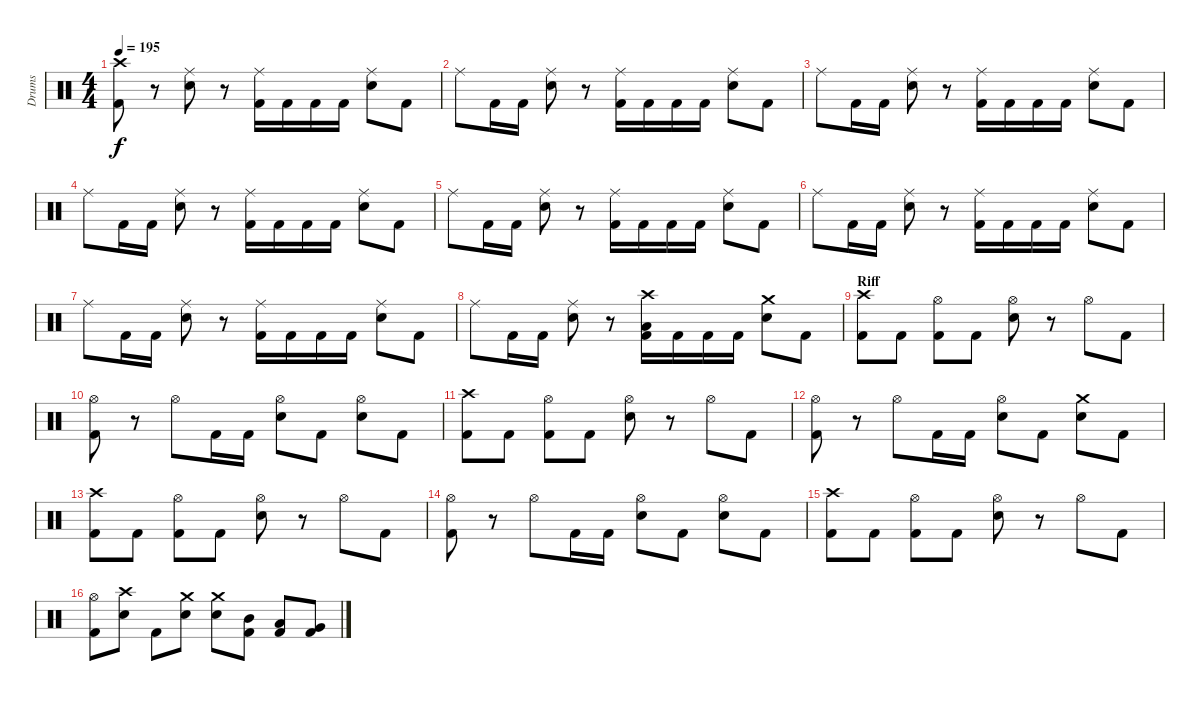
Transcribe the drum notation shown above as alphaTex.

\track ("Drums" "Drums") {instrument percussion}
\staff {score}
\articulation defaults
\ts (4 4)
\tempo 195
\clef neutral
\ks c
("Crash high (hit)" "Kick (hit) 2").8{dy f} r.8 ("Ride (middle)" "Snare (hit) 2").8 r.8 ("Ride (middle)" "Kick (hit) 2").16 "Kick (hit) 2".16 "Kick (hit) 2".16 "Kick (hit) 2".16 ("Ride (middle)" "Snare (hit) 2").8 "Kick (hit) 2".8 |
"Ride (middle)".8 "Kick (hit) 2".16 "Kick (hit) 2".16 ("Ride (middle)" "Snare (hit) 2").8 r.8 ("Ride (middle)" "Kick (hit) 2").16 "Kick (hit) 2".16 "Kick (hit) 2".16 "Kick (hit) 2".16 ("Ride (middle)" "Snare (hit) 2").8 "Kick (hit) 2".8 |
"Ride (middle)".8 "Kick (hit) 2".16 "Kick (hit) 2".16 ("Ride (middle)" "Snare (hit) 2").8 r.8 ("Ride (middle)" "Kick (hit) 2").16 "Kick (hit) 2".16 "Kick (hit) 2".16 "Kick (hit) 2".16 ("Ride (middle)" "Snare (hit) 2").8 "Kick (hit) 2".8 |
"Ride (middle)".8 "Kick (hit) 2".16 "Kick (hit) 2".16 ("Ride (middle)" "Snare (hit) 2").8 r.8 ("Ride (middle)" "Kick (hit) 2").16 "Kick (hit) 2".16 "Kick (hit) 2".16 "Kick (hit) 2".16 ("Ride (middle)" "Snare (hit) 2").8 "Kick (hit) 2".8 |
"Ride (middle)".8 "Kick (hit) 2".16 "Kick (hit) 2".16 ("Ride (middle)" "Snare (hit) 2").8 r.8 ("Ride (middle)" "Kick (hit) 2").16 "Kick (hit) 2".16 "Kick (hit) 2".16 "Kick (hit) 2".16 ("Ride (middle)" "Snare (hit) 2").8 "Kick (hit) 2".8 |
"Ride (middle)".8 "Kick (hit) 2".16 "Kick (hit) 2".16 ("Ride (middle)" "Snare (hit) 2").8 r.8 ("Ride (middle)" "Kick (hit) 2").16 "Kick (hit) 2".16 "Kick (hit) 2".16 "Kick (hit) 2".16 ("Ride (middle)" "Snare (hit) 2").8 "Kick (hit) 2".8 |
"Ride (middle)".8 "Kick (hit) 2".16 "Kick (hit) 2".16 ("Ride (middle)" "Snare (hit) 2").8 r.8 ("Ride (middle)" "Kick (hit) 2").16 "Kick (hit) 2".16 "Kick (hit) 2".16 "Kick (hit) 2".16 ("Ride (middle)" "Snare (hit) 2").8 "Kick (hit) 2".8 |
"Ride (middle)".8 "Kick (hit) 2".16 "Kick (hit) 2".16 ("Ride (middle)" "Snare (hit) 2").8 r.8 ("Crash high (hit)" "Low Floor Tom (hit)" "Kick (hit) 2").16 "Kick (hit) 2".16 "Kick (hit) 2".16 "Kick (hit) 2".16 ("Crash medium (hit)" "Snare (hit) 2").8 "Kick (hit) 2".8 |
\section ("" "Riff")
("Crash high (hit)" "Kick (hit) 2").8 "Kick (hit) 2".8 ("Hi-Hat (open)" "Kick (hit) 2").8 "Kick (hit) 2".8 ("Hi-Hat (open)" "Snare (hit) 2").8 r.8 "Hi-Hat (open)".8 "Kick (hit) 2".8 |
("Hi-Hat (open)" "Kick (hit) 2").8 r.8 "Hi-Hat (open)".8 "Kick (hit) 2".16 "Kick (hit) 2".16 ("Hi-Hat (open)" "Snare (hit) 2").8 "Kick (hit) 2".8 ("Hi-Hat (open)" "Snare (hit) 2").8 "Kick (hit) 2".8 |
("Crash high (hit)" "Kick (hit) 2").8 "Kick (hit) 2".8 ("Hi-Hat (open)" "Kick (hit) 2").8 "Kick (hit) 2".8 ("Hi-Hat (open)" "Snare (hit) 2").8 r.8 "Hi-Hat (open)".8 "Kick (hit) 2".8 |
("Hi-Hat (open)" "Kick (hit) 2").8 r.8 "Hi-Hat (open)".8 "Kick (hit) 2".16 "Kick (hit) 2".16 ("Hi-Hat (open)" "Snare (hit) 2").8 "Kick (hit) 2".8 ("Crash medium (hit)" "Snare (hit) 2").8 "Kick (hit) 2".8 |
("Crash high (hit)" "Kick (hit) 2").8 "Kick (hit) 2".8 ("Hi-Hat (open)" "Kick (hit) 2").8 "Kick (hit) 2".8 ("Hi-Hat (open)" "Snare (hit) 2").8 r.8 "Hi-Hat (open)".8 "Kick (hit) 2".8 |
("Hi-Hat (open)" "Kick (hit) 2").8 r.8 "Hi-Hat (open)".8 "Kick (hit) 2".16 "Kick (hit) 2".16 ("Hi-Hat (open)" "Snare (hit) 2").8 "Kick (hit) 2".8 ("Hi-Hat (open)" "Snare (hit) 2").8 "Kick (hit) 2".8 |
("Crash high (hit)" "Kick (hit) 2").8 "Kick (hit) 2".8 ("Hi-Hat (open)" "Kick (hit) 2").8 "Kick (hit) 2".8 ("Hi-Hat (open)" "Snare (hit) 2").8 r.8 "Hi-Hat (open)".8 "Kick (hit) 2".8 |
("Hi-Hat (open)" "Kick (hit) 2").8 ("Crash high (hit)" "Snare (hit) 2").8 "Kick (hit) 2".8 ("Crash medium (hit)" "Snare (hit) 2").8 ("Crash medium (hit)" "Snare (hit) 2").8 ("Mid Tom (hit)" "Kick (hit) 2").8 ("Low Tom (hit)" "Kick (hit) 2").8 ("Very Low Tom (hit)" "Kick (hit) 2").8
